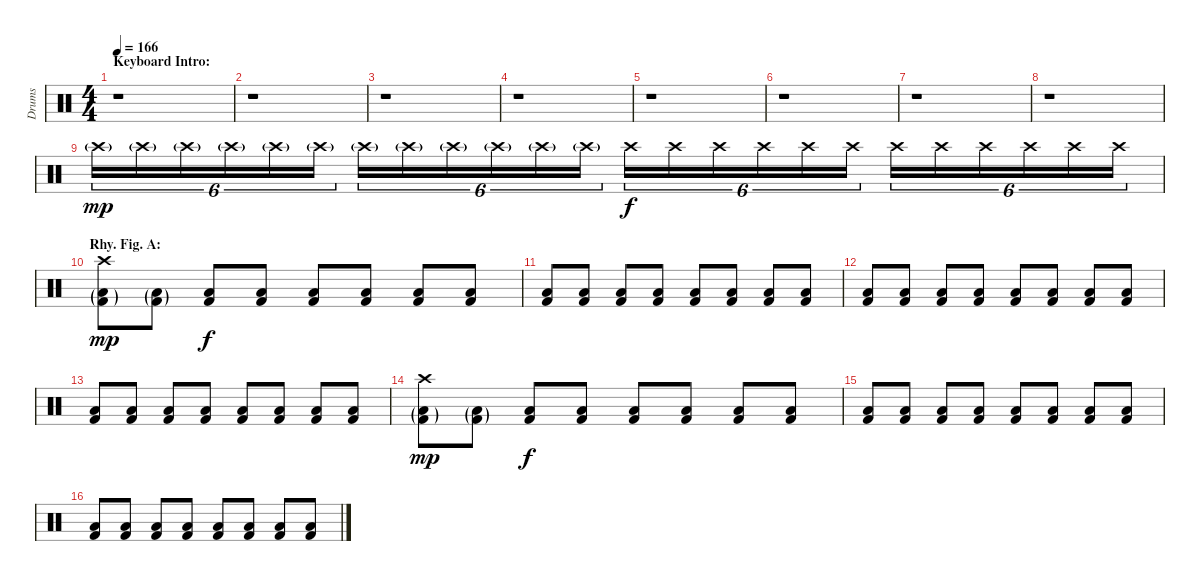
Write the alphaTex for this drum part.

\track ("Drums" "Drums") {instrument percussion}
\staff {score}
\articulation defaults
\ts (4 4)
\section ("" "Keyboard Intro:")
\tempo 166
\clef neutral
\ks c
r.1{dy mp} |
r.1 |
r.1 |
r.1 |
r.1 |
r.1 |
r.1 |
r.1 |
"Crash high (hit)"{g}.16{tu (6 4)} "Crash high (hit)"{g}.16{tu (6 4)} "Crash high (hit)"{g}.16{tu (6 4)} "Crash high (hit)"{g}.16{tu (6 4)} "Crash high (hit)"{g}.16{tu (6 4)} "Crash high (hit)"{g}.16{tu (6 4)} "Crash high (hit)"{g}.16{tu (6 4)} "Crash high (hit)"{g}.16{tu (6 4)} "Crash high (hit)"{g}.16{tu (6 4)} "Crash high (hit)"{g}.16{tu (6 4)} "Crash high (hit)"{g}.16{tu (6 4)} "Crash high (hit)"{g}.16{tu (6 4)} "Crash high (hit)".16{tu (6 4) dy f} "Crash high (hit)".16{tu (6 4)} "Crash high (hit)".16{tu (6 4)} "Crash high (hit)".16{tu (6 4)} "Crash high (hit)".16{tu (6 4)} "Crash high (hit)".16{tu (6 4)} "Crash high (hit)".16{tu (6 4)} "Crash high (hit)".16{tu (6 4)} "Crash high (hit)".16{tu (6 4)} "Crash high (hit)".16{tu (6 4)} "Crash high (hit)".16{tu (6 4)} "Crash high (hit)".16{tu (6 4)} |
\section ("" "Rhy. Fig. A:")
("Crash high (hit)" "Low Floor Tom (hit)"{g} "Kick (hit) 2"{g}).8{dy mp} ("Low Floor Tom (hit)"{g} "Kick (hit) 2"{g}).8 ("Low Floor Tom (hit)" "Kick (hit) 2").8{dy f} ("Low Floor Tom (hit)" "Kick (hit) 2").8 ("Low Floor Tom (hit)" "Kick (hit) 2").8 ("Low Floor Tom (hit)" "Kick (hit) 2").8 ("Low Floor Tom (hit)" "Kick (hit) 2").8 ("Low Floor Tom (hit)" "Kick (hit) 2").8 |
("Low Floor Tom (hit)" "Kick (hit) 2").8 ("Low Floor Tom (hit)" "Kick (hit) 2").8 ("Low Floor Tom (hit)" "Kick (hit) 2").8 ("Low Floor Tom (hit)" "Kick (hit) 2").8 ("Low Floor Tom (hit)" "Kick (hit) 2").8 ("Low Floor Tom (hit)" "Kick (hit) 2").8 ("Low Floor Tom (hit)" "Kick (hit) 2").8 ("Low Floor Tom (hit)" "Kick (hit) 2").8 |
("Low Floor Tom (hit)" "Kick (hit) 2").8 ("Low Floor Tom (hit)" "Kick (hit) 2").8 ("Low Floor Tom (hit)" "Kick (hit) 2").8 ("Low Floor Tom (hit)" "Kick (hit) 2").8 ("Low Floor Tom (hit)" "Kick (hit) 2").8 ("Low Floor Tom (hit)" "Kick (hit) 2").8 ("Low Floor Tom (hit)" "Kick (hit) 2").8 ("Low Floor Tom (hit)" "Kick (hit) 2").8 |
("Low Floor Tom (hit)" "Kick (hit) 2").8 ("Low Floor Tom (hit)" "Kick (hit) 2").8 ("Low Floor Tom (hit)" "Kick (hit) 2").8 ("Low Floor Tom (hit)" "Kick (hit) 2").8 ("Low Floor Tom (hit)" "Kick (hit) 2").8 ("Low Floor Tom (hit)" "Kick (hit) 2").8 ("Low Floor Tom (hit)" "Kick (hit) 2").8 ("Low Floor Tom (hit)" "Kick (hit) 2").8 |
("Crash high (hit)" "Low Floor Tom (hit)"{g} "Kick (hit) 2"{g}).8{dy mp} ("Low Floor Tom (hit)"{g} "Kick (hit) 2"{g}).8 ("Low Floor Tom (hit)" "Kick (hit) 2").8{dy f} ("Low Floor Tom (hit)" "Kick (hit) 2").8 ("Low Floor Tom (hit)" "Kick (hit) 2").8 ("Low Floor Tom (hit)" "Kick (hit) 2").8 ("Low Floor Tom (hit)" "Kick (hit) 2").8 ("Low Floor Tom (hit)" "Kick (hit) 2").8 |
("Low Floor Tom (hit)" "Kick (hit) 2").8 ("Low Floor Tom (hit)" "Kick (hit) 2").8 ("Low Floor Tom (hit)" "Kick (hit) 2").8 ("Low Floor Tom (hit)" "Kick (hit) 2").8 ("Low Floor Tom (hit)" "Kick (hit) 2").8 ("Low Floor Tom (hit)" "Kick (hit) 2").8 ("Low Floor Tom (hit)" "Kick (hit) 2").8 ("Low Floor Tom (hit)" "Kick (hit) 2").8 |
("Low Floor Tom (hit)" "Kick (hit) 2").8 ("Low Floor Tom (hit)" "Kick (hit) 2").8 ("Low Floor Tom (hit)" "Kick (hit) 2").8 ("Low Floor Tom (hit)" "Kick (hit) 2").8 ("Low Floor Tom (hit)" "Kick (hit) 2").8 ("Low Floor Tom (hit)" "Kick (hit) 2").8 ("Low Floor Tom (hit)" "Kick (hit) 2").8 ("Low Floor Tom (hit)" "Kick (hit) 2").8
